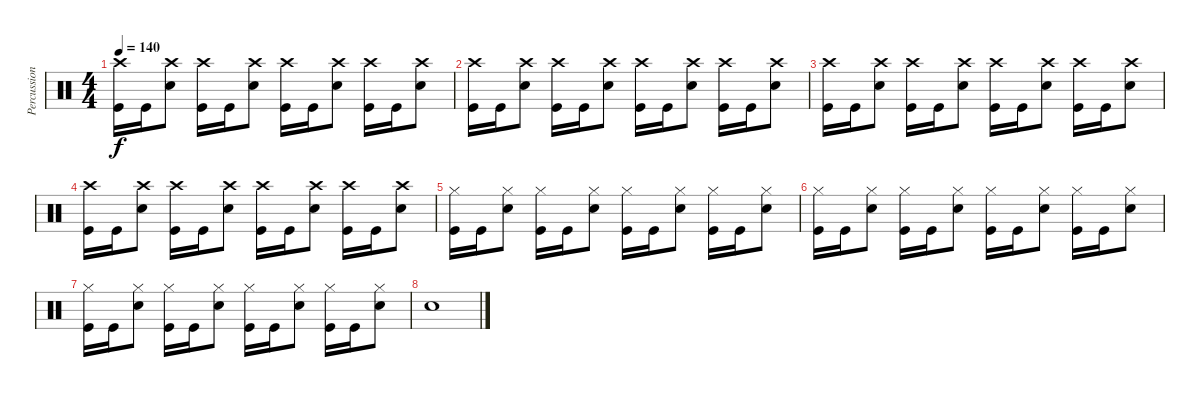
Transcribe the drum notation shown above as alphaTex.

\track ("Percussion" "Percussion") {instrument percussion}
\staff {score}
\articulation defaults
\ts (4 4)
\tempo 140
\clef neutral
\ks c
("Crash high (hit)" "Kick (hit)").16{dy f} "Kick (hit)".16 ("Crash high (hit)" "Electric Snare (hit)").8 ("Crash high (hit)" "Kick (hit)").16 "Kick (hit)".16 ("Crash high (hit)" "Electric Snare (hit)").8 ("Crash high (hit)" "Kick (hit)").16 "Kick (hit)".16 ("Crash high (hit)" "Electric Snare (hit)").8 ("Crash high (hit)" "Kick (hit)").16 "Kick (hit)".16 ("Crash high (hit)" "Electric Snare (hit)").8 |
("Crash high (hit)" "Kick (hit)").16 "Kick (hit)".16 ("Crash high (hit)" "Electric Snare (hit)").8 ("Crash high (hit)" "Kick (hit)").16 "Kick (hit)".16 ("Crash high (hit)" "Electric Snare (hit)").8 ("Crash high (hit)" "Kick (hit)").16 "Kick (hit)".16 ("Crash high (hit)" "Electric Snare (hit)").8 ("Crash high (hit)" "Kick (hit)").16 "Kick (hit)".16 ("Crash high (hit)" "Electric Snare (hit)").8 |
("Crash high (hit)" "Kick (hit)").16 "Kick (hit)".16 ("Crash high (hit)" "Electric Snare (hit)").8 ("Crash high (hit)" "Kick (hit)").16 "Kick (hit)".16 ("Crash high (hit)" "Electric Snare (hit)").8 ("Crash high (hit)" "Kick (hit)").16 "Kick (hit)".16 ("Crash high (hit)" "Electric Snare (hit)").8 ("Crash high (hit)" "Kick (hit)").16 "Kick (hit)".16 ("Crash high (hit)" "Electric Snare (hit)").8 |
("Crash high (hit)" "Kick (hit)").16 "Kick (hit)".16 ("Crash high (hit)" "Electric Snare (hit)").8 ("Crash high (hit)" "Kick (hit)").16 "Kick (hit)".16 ("Crash high (hit)" "Electric Snare (hit)").8 ("Crash high (hit)" "Kick (hit)").16 "Kick (hit)".16 ("Crash high (hit)" "Electric Snare (hit)").8 ("Crash high (hit)" "Kick (hit)").16 "Kick (hit)".16 ("Crash high (hit)" "Electric Snare (hit)").8 |
("Hi-Hat (closed)" "Kick (hit)").16 "Kick (hit)".16 ("Hi-Hat (closed)" "Electric Snare (hit)").8 ("Hi-Hat (closed)" "Kick (hit)").16 "Kick (hit)".16 ("Hi-Hat (closed)" "Electric Snare (hit)").8 ("Hi-Hat (closed)" "Kick (hit)").16 "Kick (hit)".16 ("Hi-Hat (closed)" "Electric Snare (hit)").8 ("Hi-Hat (closed)" "Kick (hit)").16 "Kick (hit)".16 ("Hi-Hat (closed)" "Electric Snare (hit)").8 |
("Hi-Hat (closed)" "Kick (hit)").16 "Kick (hit)".16 ("Hi-Hat (closed)" "Electric Snare (hit)").8 ("Hi-Hat (closed)" "Kick (hit)").16 "Kick (hit)".16 ("Hi-Hat (closed)" "Electric Snare (hit)").8 ("Hi-Hat (closed)" "Kick (hit)").16 "Kick (hit)".16 ("Hi-Hat (closed)" "Electric Snare (hit)").8 ("Hi-Hat (closed)" "Kick (hit)").16 "Kick (hit)".16 ("Hi-Hat (closed)" "Electric Snare (hit)").8 |
("Hi-Hat (closed)" "Kick (hit)").16 "Kick (hit)".16 ("Hi-Hat (closed)" "Electric Snare (hit)").8 ("Hi-Hat (closed)" "Kick (hit)").16 "Kick (hit)".16 ("Hi-Hat (closed)" "Electric Snare (hit)").8 ("Hi-Hat (closed)" "Kick (hit)").16 "Kick (hit)".16 ("Hi-Hat (closed)" "Electric Snare (hit)").8 ("Hi-Hat (closed)" "Kick (hit)").16 "Kick (hit)".16 ("Hi-Hat (closed)" "Electric Snare (hit)").8 |
"Electric Snare (hit)".1
